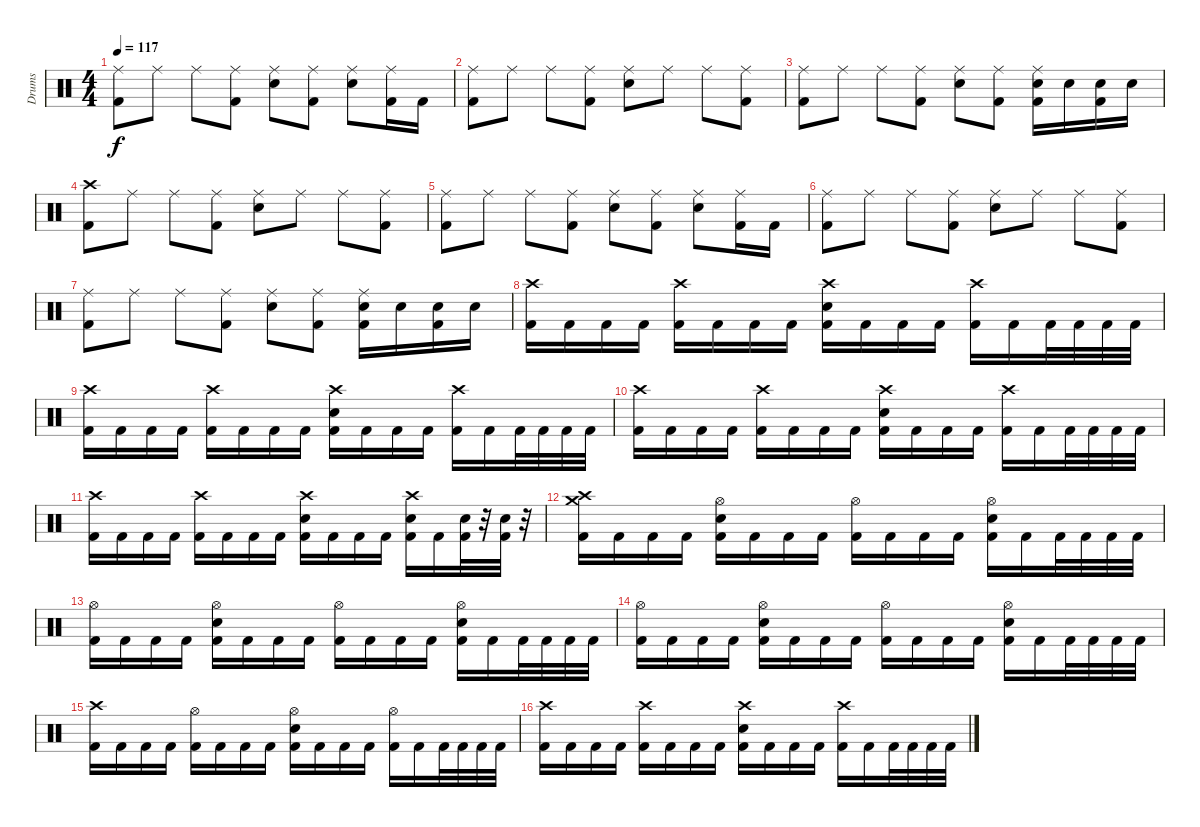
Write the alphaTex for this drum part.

\track ("Drums" "Drums") {instrument percussion}
\staff {score}
\articulation defaults
\ts (4 4)
\tempo 117
\clef neutral
\ks c
("Ride (middle)" "Kick (hit) 2").8{dy f} "Ride (middle)".8 "Ride (middle)".8 ("Ride (middle)" "Kick (hit) 2").8 ("Ride (middle)" "Electric Snare (hit)").8 ("Ride (middle)" "Kick (hit) 2").8 ("Ride (middle)" "Electric Snare (hit)").8 ("Ride (middle)" "Kick (hit) 2").16 "Kick (hit) 2".16 |
("Ride (middle)" "Kick (hit) 2").8 "Ride (middle)".8 "Ride (middle)".8 ("Ride (middle)" "Kick (hit) 2").8 ("Ride (middle)" "Electric Snare (hit)").8 "Ride (middle)".8 "Ride (middle)".8 ("Ride (middle)" "Kick (hit) 2").8 |
("Ride (middle)" "Kick (hit) 2").8 "Ride (middle)".8 "Ride (middle)".8 ("Ride (middle)" "Kick (hit) 2").8 ("Ride (middle)" "Electric Snare (hit)").8 ("Ride (middle)" "Kick (hit) 2").8 ("Ride (middle)" "Electric Snare (hit)" "Kick (hit) 2").16 "Electric Snare (hit)".16 ("Electric Snare (hit)" "Kick (hit) 2").16 "Electric Snare (hit)".16 |
("Crash high (hit)" "Kick (hit) 2").8 "Ride (middle)".8 "Ride (middle)".8 ("Ride (middle)" "Kick (hit) 2").8 ("Ride (middle)" "Electric Snare (hit)").8 "Ride (middle)".8 "Ride (middle)".8 ("Ride (middle)" "Kick (hit) 2").8 |
("Ride (middle)" "Kick (hit) 2").8 "Ride (middle)".8 "Ride (middle)".8 ("Ride (middle)" "Kick (hit) 2").8 ("Ride (middle)" "Electric Snare (hit)").8 ("Ride (middle)" "Kick (hit) 2").8 ("Ride (middle)" "Electric Snare (hit)").8 ("Ride (middle)" "Kick (hit) 2").16 "Kick (hit) 2".16 |
("Ride (middle)" "Kick (hit) 2").8 "Ride (middle)".8 "Ride (middle)".8 ("Ride (middle)" "Kick (hit) 2").8 ("Ride (middle)" "Electric Snare (hit)").8 "Ride (middle)".8 "Ride (middle)".8 ("Ride (middle)" "Kick (hit) 2").8 |
("Ride (middle)" "Kick (hit) 2").8 "Ride (middle)".8 "Ride (middle)".8 ("Ride (middle)" "Kick (hit) 2").8 ("Ride (middle)" "Electric Snare (hit)").8 ("Ride (middle)" "Kick (hit) 2").8 ("Ride (middle)" "Electric Snare (hit)" "Kick (hit) 2").16 "Electric Snare (hit)".16 ("Electric Snare (hit)" "Kick (hit) 2").16 "Electric Snare (hit)".16 |
("Crash high (hit)" "Kick (hit) 2").16 "Kick (hit) 2".16 "Kick (hit) 2".16 "Kick (hit) 2".16 ("Crash high (hit)" "Kick (hit) 2").16 "Kick (hit) 2".16 "Kick (hit) 2".16 "Kick (hit) 2".16 ("Crash high (hit)" "Electric Snare (hit)" "Kick (hit) 2").16 "Kick (hit) 2".16 "Kick (hit) 2".16 "Kick (hit) 2".16 ("Crash high (hit)" "Kick (hit) 2").16 "Kick (hit) 2".16 "Kick (hit) 2".32 "Kick (hit) 2".32 "Kick (hit) 2".32 "Kick (hit) 2".32 |
("Crash high (hit)" "Kick (hit) 2").16 "Kick (hit) 2".16 "Kick (hit) 2".16 "Kick (hit) 2".16 ("Crash high (hit)" "Kick (hit) 2").16 "Kick (hit) 2".16 "Kick (hit) 2".16 "Kick (hit) 2".16 ("Crash high (hit)" "Electric Snare (hit)" "Kick (hit) 2").16 "Kick (hit) 2".16 "Kick (hit) 2".16 "Kick (hit) 2".16 ("Crash high (hit)" "Kick (hit) 2").16 "Kick (hit) 2".16 "Kick (hit) 2".32 "Kick (hit) 2".32 "Kick (hit) 2".32 "Kick (hit) 2".32 |
("Crash high (hit)" "Kick (hit) 2").16 "Kick (hit) 2".16 "Kick (hit) 2".16 "Kick (hit) 2".16 ("Crash high (hit)" "Kick (hit) 2").16 "Kick (hit) 2".16 "Kick (hit) 2".16 "Kick (hit) 2".16 ("Crash high (hit)" "Electric Snare (hit)" "Kick (hit) 2").16 "Kick (hit) 2".16 "Kick (hit) 2".16 "Kick (hit) 2".16 ("Crash high (hit)" "Kick (hit) 2").16 "Kick (hit) 2".16 "Kick (hit) 2".32 "Kick (hit) 2".32 "Kick (hit) 2".32 "Kick (hit) 2".32 |
("Crash high (hit)" "Kick (hit) 2").16 "Kick (hit) 2".16 "Kick (hit) 2".16 "Kick (hit) 2".16 ("Crash high (hit)" "Kick (hit) 2").16 "Kick (hit) 2".16 "Kick (hit) 2".16 "Kick (hit) 2".16 ("Crash high (hit)" "Electric Snare (hit)" "Kick (hit) 2").16 "Kick (hit) 2".16 "Kick (hit) 2".16 "Kick (hit) 2".16 ("Crash high (hit)" "Electric Snare (hit)" "Kick (hit) 2").16 "Kick (hit) 2".16 ("Electric Snare (hit)" "Kick (hit) 2").32 r.32 ("Electric Snare (hit)" "Kick (hit) 2").32 r.32 |
("Crash medium (hit)" "Crash high (hit)" "Kick (hit) 2").16 "Kick (hit) 2".16 "Kick (hit) 2".16 "Kick (hit) 2".16 ("Hi-Hat (open)" "Electric Snare (hit)" "Kick (hit) 2").16 "Kick (hit) 2".16 "Kick (hit) 2".16 "Kick (hit) 2".16 ("Hi-Hat (open)" "Kick (hit) 2").16 "Kick (hit) 2".16 "Kick (hit) 2".16 "Kick (hit) 2".16 ("Hi-Hat (open)" "Electric Snare (hit)" "Kick (hit) 2").16 "Kick (hit) 2".16 "Kick (hit) 2".32 "Kick (hit) 2".32 "Kick (hit) 2".32 "Kick (hit) 2".32 |
("Hi-Hat (open)" "Kick (hit) 2").16 "Kick (hit) 2".16 "Kick (hit) 2".16 "Kick (hit) 2".16 ("Hi-Hat (open)" "Electric Snare (hit)" "Kick (hit) 2").16 "Kick (hit) 2".16 "Kick (hit) 2".16 "Kick (hit) 2".16 ("Hi-Hat (open)" "Kick (hit) 2").16 "Kick (hit) 2".16 "Kick (hit) 2".16 "Kick (hit) 2".16 ("Hi-Hat (open)" "Electric Snare (hit)" "Kick (hit) 2").16 "Kick (hit) 2".16 "Kick (hit) 2".32 "Kick (hit) 2".32 "Kick (hit) 2".32 "Kick (hit) 2".32 |
("Hi-Hat (open)" "Kick (hit) 2").16 "Kick (hit) 2".16 "Kick (hit) 2".16 "Kick (hit) 2".16 ("Hi-Hat (open)" "Electric Snare (hit)" "Kick (hit) 2").16 "Kick (hit) 2".16 "Kick (hit) 2".16 "Kick (hit) 2".16 ("Hi-Hat (open)" "Kick (hit) 2").16 "Kick (hit) 2".16 "Kick (hit) 2".16 "Kick (hit) 2".16 ("Hi-Hat (open)" "Electric Snare (hit)" "Kick (hit) 2").16 "Kick (hit) 2".16 "Kick (hit) 2".32 "Kick (hit) 2".32 "Kick (hit) 2".32 "Kick (hit) 2".32 |
("Crash high (hit)" "Kick (hit) 2").16 "Kick (hit) 2".16 "Kick (hit) 2".16 "Kick (hit) 2".16 ("Hi-Hat (open)" "Kick (hit) 2").16 "Kick (hit) 2".16 "Kick (hit) 2".16 "Kick (hit) 2".16 ("Hi-Hat (open)" "Electric Snare (hit)" "Kick (hit) 2").16 "Kick (hit) 2".16 "Kick (hit) 2".16 "Kick (hit) 2".16 ("Hi-Hat (open)" "Kick (hit) 2").16 "Kick (hit) 2".16 "Kick (hit) 2".32 "Kick (hit) 2".32 "Kick (hit) 2".32 "Kick (hit) 2".32 |
("Crash high (hit)" "Kick (hit) 2").16 "Kick (hit) 2".16 "Kick (hit) 2".16 "Kick (hit) 2".16 ("Crash high (hit)" "Kick (hit) 2").16 "Kick (hit) 2".16 "Kick (hit) 2".16 "Kick (hit) 2".16 ("Crash high (hit)" "Electric Snare (hit)" "Kick (hit) 2").16 "Kick (hit) 2".16 "Kick (hit) 2".16 "Kick (hit) 2".16 ("Crash high (hit)" "Kick (hit) 2").16 "Kick (hit) 2".16 "Kick (hit) 2".32 "Kick (hit) 2".32 "Kick (hit) 2".32 "Kick (hit) 2".32
